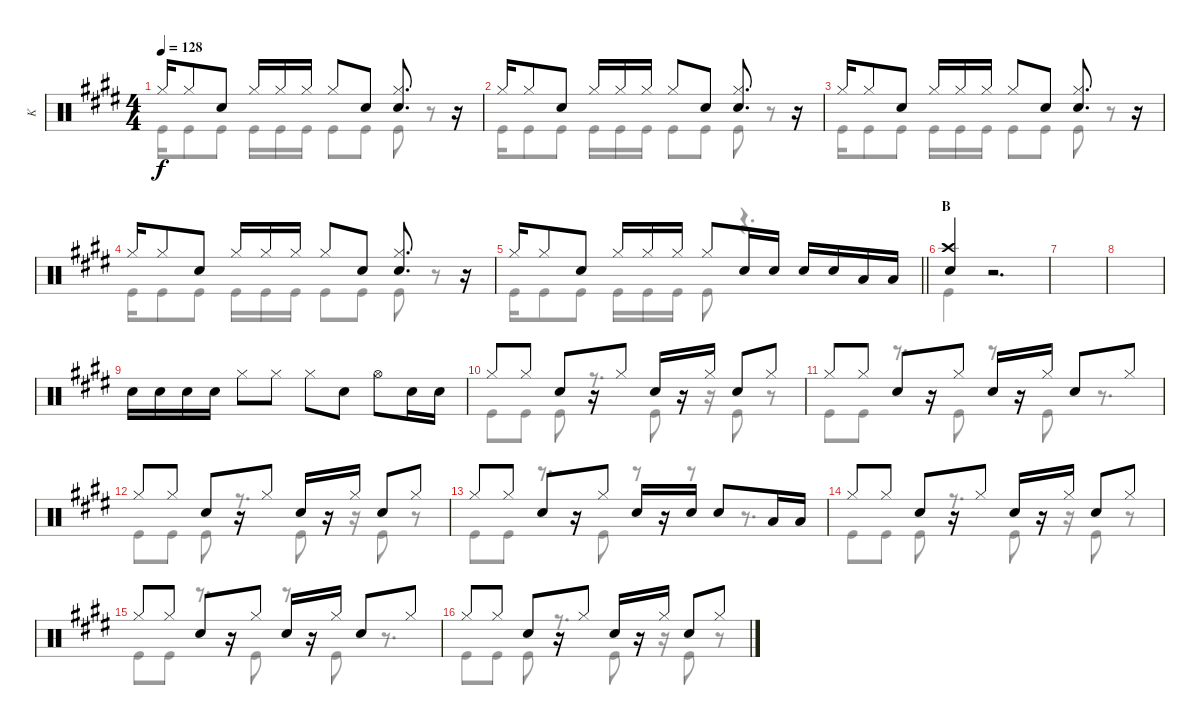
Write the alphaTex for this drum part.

\track ("K" "K") {instrument percussion}
\staff {score}
\articulation defaults
\voice
\ts (4 4)
\tempo 128
\clef neutral
\ks e "Hi-Hat (closed)".16{dy f} "Hi-Hat (closed)".8 "Snare (hit) 2".8 "Hi-Hat (closed)".16 "Hi-Hat (closed)".16 "Hi-Hat (closed)".16 "Hi-Hat (closed)".8 "Snare (hit) 2".8
("Hi-Hat (closed)" "Snare (hit) 2").8{d} r.16 |
"Hi-Hat (closed)".16 "Hi-Hat (closed)".8 "Snare (hit) 2".8 "Hi-Hat (closed)".16 "Hi-Hat (closed)".16 "Hi-Hat (closed)".16 "Hi-Hat (closed)".8 "Snare (hit) 2".8 ("Hi-Hat (closed)" "Snare (hit) 2").8{d} r.16 |
"Hi-Hat (closed)".16 "Hi-Hat (closed)".8 "Snare (hit) 2".8 "Hi-Hat (closed)".16 "Hi-Hat (closed)".16 "Hi-Hat (closed)".16 "Hi-Hat (closed)".8 "Snare (hit) 2".8 ("Hi-Hat (closed)" "Snare (hit) 2").8{d} r.16 |
"Hi-Hat (closed)".16 "Hi-Hat (closed)".8 "Snare (hit) 2".8 "Hi-Hat (closed)".16 "Hi-Hat (closed)".16 "Hi-Hat (closed)".16 "Hi-Hat (closed)".8 "Snare (hit) 2".8 ("Hi-Hat (closed)" "Snare (hit) 2").8{d} r.16 |
\barLineRight lightlight "Hi-Hat (closed)".16 "Hi-Hat (closed)".8 "Snare (hit) 2".8 "Hi-Hat (closed)".16 "Hi-Hat (closed)".16 "Hi-Hat (closed)".16 "Hi-Hat (closed)".8 "Snare (hit) 2".16 "Snare (hit) 2".16 "Snare (hit) 2".16 "Snare (hit) 2".16 "Low Tom (hit)".16 "Low Tom (hit)".16
|
\section ("" "B")
("Crash high (hit)" "Snare (hit) 2").4 r.2{d} |
|
|
"Snare (hit) 2".16 "Snare (hit) 2".16 "Snare (hit) 2".16 "Snare (hit) 2".16 "Hi-Hat (closed)".8 "Hi-Hat (closed)".8 "Hi-Hat (closed)".8 "Snare (hit) 2".8 "Hi-Hat (open)".8 "Snare (hit) 2".16 "Snare (hit) 2".16 |
"Hi-Hat (closed)".8 "Hi-Hat (closed)".8 "Snare (hit) 2".8 r.16 "Hi-Hat (closed)".8 "Snare (hit) 2".16 r.16 "Hi-Hat (closed)".16 "Snare (hit) 2".8 "Hi-Hat (closed)".8 |
"Hi-Hat (closed)".8 "Hi-Hat (closed)".8 "Snare (hit) 2".8 r.16 "Hi-Hat (closed)".8 "Snare (hit) 2".16 r.16 "Hi-Hat (closed)".16 "Snare (hit) 2".8 "Hi-Hat (closed)".8 |
"Hi-Hat (closed)".8 "Hi-Hat (closed)".8 "Snare (hit) 2".8 r.16 "Hi-Hat (closed)".8 "Snare (hit) 2".16 r.16 "Hi-Hat (closed)".16 "Snare (hit) 2".8 "Hi-Hat (closed)".8 |
"Hi-Hat (closed)".8 "Hi-Hat (closed)".8 "Snare (hit) 2".8 r.16 "Hi-Hat (closed)".8 "Snare (hit) 2".16 r.16 "Snare (hit) 2".16 "Snare (hit) 2".8 "Low Tom (hit)".16 "Low Tom (hit)".16 |
"Hi-Hat (closed)".8 "Hi-Hat (closed)".8 "Snare (hit) 2".8 r.16 "Hi-Hat (closed)".8 "Snare (hit) 2".16 r.16 "Hi-Hat (closed)".16 "Snare (hit) 2".8 "Hi-Hat (closed)".8 |
"Hi-Hat (closed)".8 "Hi-Hat (closed)".8 "Snare (hit) 2".8 r.16 "Hi-Hat (closed)".8 "Snare (hit) 2".16 r.16 "Hi-Hat (closed)".16 "Snare (hit) 2".8 "Hi-Hat (closed)".8 |
"Hi-Hat (closed)".8 "Hi-Hat (closed)".8 "Snare (hit) 2".8 r.16 "Hi-Hat (closed)".8 "Snare (hit) 2".16 r.16 "Hi-Hat (closed)".16 "Snare (hit) 2".8 "Hi-Hat (closed)".8
\voice
\clef neutral
\ottava regular
\simile none
\ks e "Kick (hit)".16{dy f} "Kick (hit)".8 "Kick (hit)".8 "Kick (hit)".16 "Kick (hit)".16 "Kick (hit)".16 "Kick (hit)".8 "Kick (hit)".8 "Kick (hit)".8
r.8 |
"Kick (hit)".16 "Kick (hit)".8 "Kick (hit)".8 "Kick (hit)".16 "Kick (hit)".16 "Kick (hit)".16 "Kick (hit)".8 "Kick (hit)".8 "Kick (hit)".8 r.8 |
"Kick (hit)".16 "Kick (hit)".8 "Kick (hit)".8 "Kick (hit)".16 "Kick (hit)".16 "Kick (hit)".16 "Kick (hit)".8 "Kick (hit)".8 "Kick (hit)".8 r.8 |
"Kick (hit)".16 "Kick (hit)".8 "Kick (hit)".8 "Kick (hit)".16 "Kick (hit)".16 "Kick (hit)".16 "Kick (hit)".8 "Kick (hit)".8 "Kick (hit)".8 r.8 |
\barLineRight lightlight "Kick (hit)".16 "Kick (hit)".8 "Kick (hit)".8 "Kick (hit)".16 "Kick (hit)".16 "Kick (hit)".16 "Kick (hit)".8
r.4{d} |
"Kick (hit)".4 r.2{d} |
|
|
|
"Kick (hit)".8 "Kick (hit)".8 "Kick (hit)".8 r.8{d} "Kick (hit)".8 r.16 "Kick (hit)".8 r.8 |
"Kick (hit)".8 "Kick (hit)".8 r.8{d} "Kick (hit)".8 r.8 "Kick (hit)".8 r.8{d} |
"Kick (hit)".8 "Kick (hit)".8 "Kick (hit)".8 r.8{d} "Kick (hit)".8 r.16 "Kick (hit)".8 r.8 |
"Kick (hit)".8 "Kick (hit)".8 r.8{d} "Kick (hit)".8 r.8 r.8 r.8{d} |
"Kick (hit)".8 "Kick (hit)".8 "Kick (hit)".8 r.8{d} "Kick (hit)".8 r.16 "Kick (hit)".8 r.8 |
"Kick (hit)".8 "Kick (hit)".8 r.8{d} "Kick (hit)".8 r.8 "Kick (hit)".8 r.8{d} |
"Kick (hit)".8 "Kick (hit)".8 "Kick (hit)".8 r.8{d} "Kick (hit)".8 r.16 "Kick (hit)".8 r.8
